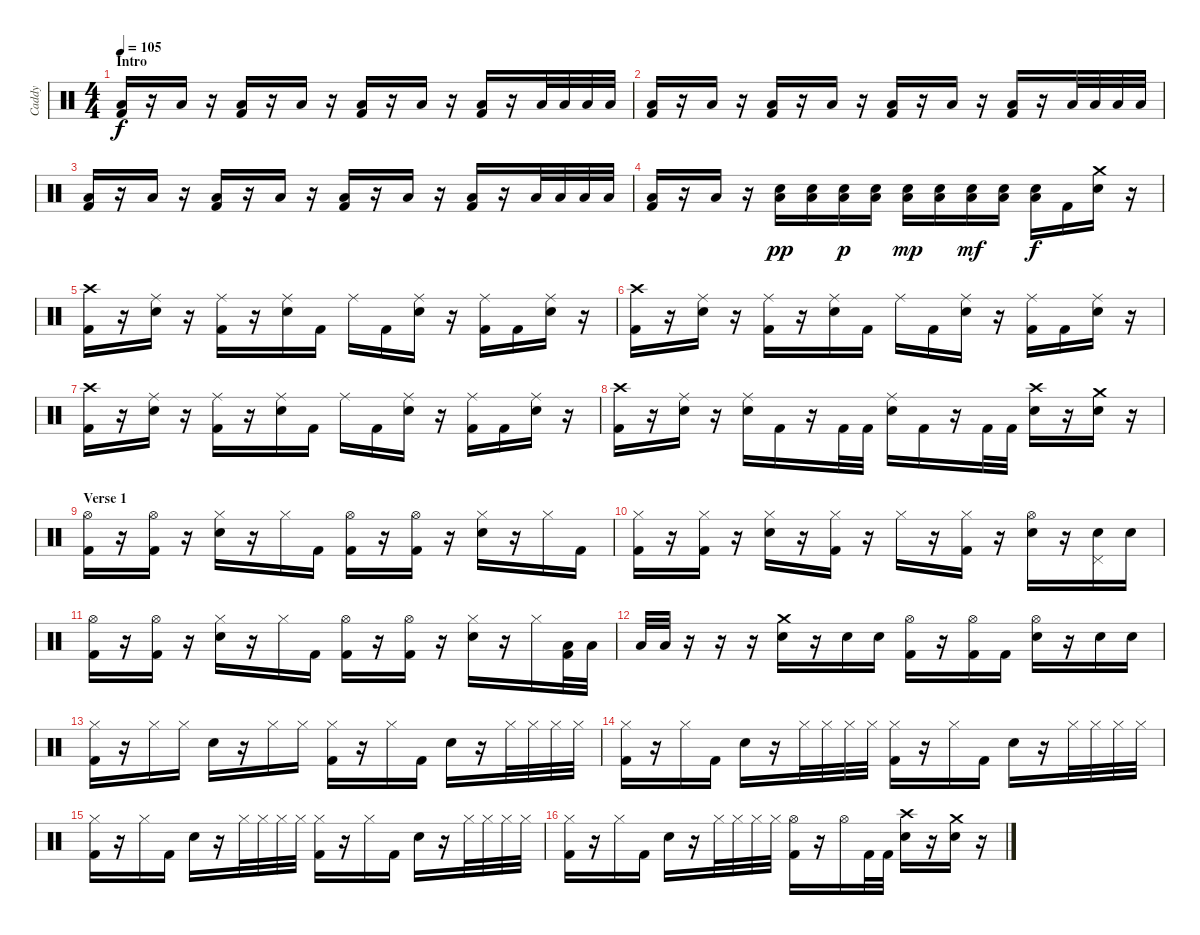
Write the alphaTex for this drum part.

\track ("Caddy" "Caddy") {instrument percussion}
\staff {score}
\articulation defaults
\ts (4 4)
\section ("" "Intro")
\tempo 105
\clef neutral
\ks c
("Low Floor Tom (hit)" "Kick (hit) 2").16{dy f} r.16 "Low Floor Tom (hit)".16 r.16 ("Low Floor Tom (hit)" "Kick (hit) 2").16 r.16 "Low Floor Tom (hit)".16 r.16 ("Low Floor Tom (hit)" "Kick (hit) 2").16 r.16 "Low Floor Tom (hit)".16 r.16 ("Low Floor Tom (hit)" "Kick (hit) 2").16 r.16 "Low Floor Tom (hit)".32 "Low Floor Tom (hit)".32 "Low Floor Tom (hit)".32 "Low Floor Tom (hit)".32 |
("Low Floor Tom (hit)" "Kick (hit) 2").16 r.16 "Low Floor Tom (hit)".16 r.16 ("Low Floor Tom (hit)" "Kick (hit) 2").16 r.16 "Low Floor Tom (hit)".16 r.16 ("Low Floor Tom (hit)" "Kick (hit) 2").16 r.16 "Low Floor Tom (hit)".16 r.16 ("Low Floor Tom (hit)" "Kick (hit) 2").16 r.16 "Low Floor Tom (hit)".32 "Low Floor Tom (hit)".32 "Low Floor Tom (hit)".32 "Low Floor Tom (hit)".32 |
("Low Floor Tom (hit)" "Kick (hit) 2").16 r.16 "Low Floor Tom (hit)".16 r.16 ("Low Floor Tom (hit)" "Kick (hit) 2").16 r.16 "Low Floor Tom (hit)".16 r.16 ("Low Floor Tom (hit)" "Kick (hit) 2").16 r.16 "Low Floor Tom (hit)".16 r.16 ("Low Floor Tom (hit)" "Kick (hit) 2").16 r.16 "Low Floor Tom (hit)".32 "Low Floor Tom (hit)".32 "Low Floor Tom (hit)".32 "Low Floor Tom (hit)".32 |
("Low Floor Tom (hit)" "Kick (hit) 2").16 r.16 "Low Floor Tom (hit)".16 r.16 ("Electric Snare (hit)" "Low Floor Tom (hit)").16{dy pp} ("Electric Snare (hit)" "Low Floor Tom (hit)").16 ("Electric Snare (hit)" "Low Floor Tom (hit)").16{dy p} ("Electric Snare (hit)" "Low Floor Tom (hit)").16 ("Electric Snare (hit)" "Low Floor Tom (hit)").16{dy mp} ("Electric Snare (hit)" "Low Floor Tom (hit)").16 ("Electric Snare (hit)" "Low Floor Tom (hit)").16{dy mf} ("Electric Snare (hit)" "Low Floor Tom (hit)").16 ("Electric Snare (hit)" "Low Floor Tom (hit)").16{dy f} "Kick (hit) 2".16 ("Crash medium (hit)" "Electric Snare (hit)").16 r.16 |
("Crash high (hit)" "Kick (hit) 2").16 r.16 ("Ride (middle)" "Electric Snare (hit)").16 r.16 ("Ride (middle)" "Kick (hit) 2").16 r.16 ("Ride (middle)" "Electric Snare (hit)").16 "Kick (hit) 2".16 "Ride (middle)".16 "Kick (hit) 2".16 ("Ride (middle)" "Electric Snare (hit)").16 r.16 ("Ride (middle)" "Kick (hit) 2").16 "Kick (hit) 2".16 ("Ride (middle)" "Electric Snare (hit)").16 r.16 |
("Crash high (hit)" "Kick (hit) 2").16 r.16 ("Ride (middle)" "Electric Snare (hit)").16 r.16 ("Ride (middle)" "Kick (hit) 2").16 r.16 ("Ride (middle)" "Electric Snare (hit)").16 "Kick (hit) 2".16 "Ride (middle)".16 "Kick (hit) 2".16 ("Ride (middle)" "Electric Snare (hit)").16 r.16 ("Ride (middle)" "Kick (hit) 2").16 "Kick (hit) 2".16 ("Ride (middle)" "Electric Snare (hit)").16 r.16 |
("Crash high (hit)" "Kick (hit) 2").16 r.16 ("Ride (middle)" "Electric Snare (hit)").16 r.16 ("Ride (middle)" "Kick (hit) 2").16 r.16 ("Ride (middle)" "Electric Snare (hit)").16 "Kick (hit) 2".16 "Ride (middle)".16 "Kick (hit) 2".16 ("Ride (middle)" "Electric Snare (hit)").16 r.16 ("Ride (middle)" "Kick (hit) 2").16 "Kick (hit) 2".16 ("Ride (middle)" "Electric Snare (hit)").16 r.16 |
("Crash high (hit)" "Kick (hit) 2").16 r.16 ("Ride (middle)" "Electric Snare (hit)").16 r.16 ("Ride (middle)" "Electric Snare (hit)").16 "Kick (hit) 2".16 r.16 "Kick (hit) 2".32 "Kick (hit) 2".32 ("Ride (middle)" "Electric Snare (hit)").16 "Kick (hit) 2".16 r.16 "Kick (hit) 2".32 "Kick (hit) 2".32 ("Crash high (hit)" "Electric Snare (hit)").16 r.16 ("Crash medium (hit)" "Electric Snare (hit)").16 r.16 |
\section ("" "Verse 1")
("Hi-Hat (open)" "Kick (hit) 2").16 r.16 ("Hi-Hat (open)" "Kick (hit) 2").16 r.16 ("Hi-Hat (closed)" "Electric Snare (hit)").16 r.16 "Hi-Hat (closed)".16 "Kick (hit) 2".16 ("Hi-Hat (open)" "Kick (hit) 2").16 r.16 ("Hi-Hat (open)" "Kick (hit) 2").16 r.16 ("Hi-Hat (closed)" "Electric Snare (hit)").16 r.16 "Hi-Hat (closed)".16 "Kick (hit) 2".16 |
("Hi-Hat (closed)" "Kick (hit) 2").16 r.16 ("Hi-Hat (closed)" "Kick (hit) 2").16 r.16 ("Hi-Hat (closed)" "Electric Snare (hit)").16 r.16 ("Hi-Hat (closed)" "Kick (hit) 2").16 r.16 "Hi-Hat (closed)".16 r.16 ("Hi-Hat (closed)" "Kick (hit) 2").16 r.16 ("Hi-Hat (open)" "Electric Snare (hit)").16 r.16 ("Pedal Hi-Hat (hit)" "Electric Snare (hit)").16 "Electric Snare (hit)".16 |
("Hi-Hat (open)" "Kick (hit) 2").16 r.16 ("Hi-Hat (open)" "Kick (hit) 2").16 r.16 ("Hi-Hat (closed)" "Electric Snare (hit)").16 r.16 "Hi-Hat (closed)".16 "Kick (hit) 2".16 ("Hi-Hat (open)" "Kick (hit) 2").16 r.16 ("Hi-Hat (open)" "Kick (hit) 2").16 r.16 ("Hi-Hat (closed)" "Electric Snare (hit)").16 r.16 "Hi-Hat (closed)".16 ("Low Tom (hit)" "Kick (hit) 2").32 "Low Tom (hit)".32 |
"Low Floor Tom (hit)".32 "Low Floor Tom (hit)".32 r.16 r.16 r.16 ("Crash medium (hit)" "Electric Snare (hit)").16 r.16 "Electric Snare (hit)".16 "Electric Snare (hit)".16 ("Hi-Hat (open)" "Kick (hit) 2").16 r.16 ("Hi-Hat (open)" "Kick (hit) 2").16 "Kick (hit) 2".16 ("Hi-Hat (open)" "Electric Snare (hit)").16 r.16 "Electric Snare (hit)".16 "Electric Snare (hit)".16 |
("Hi-Hat (closed)" "Kick (hit) 2").16 r.16 "Hi-Hat (closed)".16 "Hi-Hat (closed)".16 "Electric Snare (hit)".16 r.16 "Hi-Hat (closed)".16 "Hi-Hat (closed)".16 ("Hi-Hat (closed)" "Kick (hit) 2").16 r.16 "Hi-Hat (closed)".16 "Kick (hit) 2".16 "Electric Snare (hit)".16 r.16 "Hi-Hat (closed)".32 "Hi-Hat (closed)".32 "Hi-Hat (closed)".32 "Hi-Hat (closed)".32 |
("Hi-Hat (closed)" "Kick (hit) 2").16 r.16 "Hi-Hat (closed)".16 "Kick (hit) 2".16 "Electric Snare (hit)".16 r.16 "Hi-Hat (closed)".32 "Hi-Hat (closed)".32 "Hi-Hat (closed)".32 "Hi-Hat (closed)".32 ("Hi-Hat (closed)" "Kick (hit) 2").16 r.16 "Hi-Hat (closed)".16 "Kick (hit) 2".16 "Electric Snare (hit)".16 r.16 "Hi-Hat (closed)".32 "Hi-Hat (closed)".32 "Hi-Hat (closed)".32 "Hi-Hat (closed)".32 |
("Hi-Hat (closed)" "Kick (hit) 2").16 r.16 "Hi-Hat (closed)".16 "Kick (hit) 2".16 "Electric Snare (hit)".16 r.16 "Hi-Hat (closed)".32 "Hi-Hat (closed)".32 "Hi-Hat (closed)".32 "Hi-Hat (closed)".32 ("Hi-Hat (closed)" "Kick (hit) 2").16 r.16 "Hi-Hat (closed)".16 "Kick (hit) 2".16 "Electric Snare (hit)".16 r.16 "Hi-Hat (closed)".32 "Hi-Hat (closed)".32 "Hi-Hat (closed)".32 "Hi-Hat (closed)".32 |
("Hi-Hat (closed)" "Kick (hit) 2").16 r.16 "Hi-Hat (closed)".16 "Kick (hit) 2".16 "Electric Snare (hit)".16 r.16 "Hi-Hat (closed)".32 "Hi-Hat (closed)".32 "Hi-Hat (closed)".32 "Hi-Hat (closed)".32 ("Hi-Hat (open)" "Kick (hit) 2").16 r.16 "Hi-Hat (open)".16 "Kick (hit) 2".32 "Kick (hit) 2".32 ("Crash high (hit)" "Electric Snare (hit)").16 r.16 ("Crash medium (hit)" "Electric Snare (hit)").16 r.16
